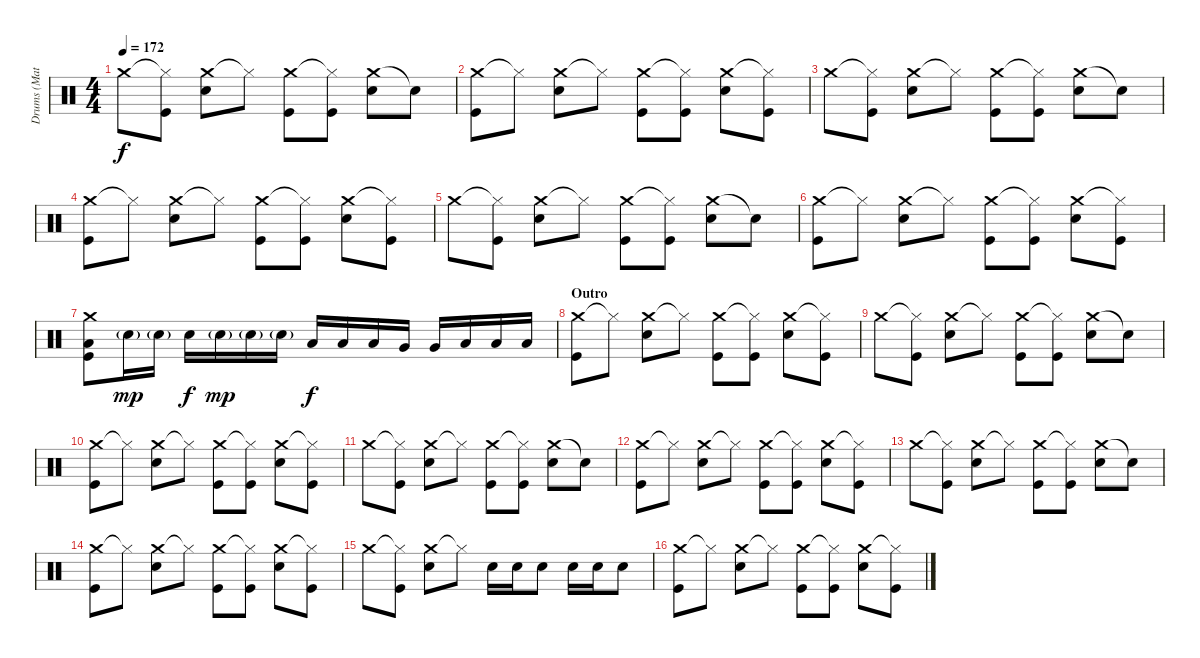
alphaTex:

\track ("Drums (Matt)" "Drums (Mat") {instrument percussion}
\staff {score}
\articulation defaults
\ts (4 4)
\tempo 172
\clef neutral
\ks c "Crash medium (hit)".8{dy f}
("Hi-Hat (closed)"{t} "Kick (hit)").8 ("Crash medium (hit)" "Electric Snare (hit)").8 "Hi-Hat (closed)"{t}.8 ("Crash medium (hit)" "Kick (hit)").8 ("Hi-Hat (closed)"{t} "Kick (hit)").8 ("Crash medium (hit)" "Electric Snare (hit)").8 "Snare (hit)"{t}.8 |
("Crash medium (hit)" "Kick (hit)").8 "Hi-Hat (closed)"{t}.8 ("Crash medium (hit)" "Electric Snare (hit)").8 "Hi-Hat (closed)"{t}.8 ("Crash medium (hit)" "Kick (hit)").8 ("Hi-Hat (closed)"{t} "Kick (hit)").8 ("Crash medium (hit)" "Electric Snare (hit)").8 ("Hi-Hat (closed)"{t} "Kick (hit)").8 |
"Crash medium (hit)".8 ("Hi-Hat (closed)"{t} "Kick (hit)").8 ("Crash medium (hit)" "Electric Snare (hit)").8 "Hi-Hat (closed)"{t}.8 ("Crash medium (hit)" "Kick (hit)").8 ("Hi-Hat (closed)"{t} "Kick (hit)").8 ("Crash medium (hit)" "Electric Snare (hit)").8 "Snare (hit)"{t}.8 |
("Crash medium (hit)" "Kick (hit)").8 "Hi-Hat (closed)"{t}.8 ("Crash medium (hit)" "Electric Snare (hit)").8 "Hi-Hat (closed)"{t}.8 ("Crash medium (hit)" "Kick (hit)").8 ("Hi-Hat (closed)"{t} "Kick (hit)").8 ("Crash medium (hit)" "Electric Snare (hit)").8 ("Hi-Hat (closed)"{t} "Kick (hit)").8 |
"Crash medium (hit)".8 ("Hi-Hat (closed)"{t} "Kick (hit)").8 ("Crash medium (hit)" "Electric Snare (hit)").8 "Hi-Hat (closed)"{t}.8 ("Crash medium (hit)" "Kick (hit)").8 ("Hi-Hat (closed)"{t} "Kick (hit)").8 ("Crash medium (hit)" "Electric Snare (hit)").8 "Snare (hit)"{t}.8 |
("Crash medium (hit)" "Kick (hit)").8 "Hi-Hat (closed)"{t}.8 ("Crash medium (hit)" "Electric Snare (hit)").8 "Hi-Hat (closed)"{t}.8 ("Crash medium (hit)" "Kick (hit)").8 ("Hi-Hat (closed)"{t} "Kick (hit)").8 ("Crash medium (hit)" "Electric Snare (hit)").8 ("Hi-Hat (closed)"{t} "Kick (hit)").8 |
("Crash medium (hit)" "Low Tom (hit)" "Kick (hit)").8 "Electric Snare (hit)"{g}.16{dy mp} "Electric Snare (hit)"{g}.16 "Electric Snare (hit)".16{dy f} "Electric Snare (hit)"{g}.16{dy mp} "Electric Snare (hit)"{g}.16 "Electric Snare (hit)"{g}.16 "Low Tom (hit)".16{dy f} "Low Tom (hit)".16 "Low Tom (hit)".16 "Very Low Tom (hit)".16 "Very Low Tom (hit)".16 "Low Floor Tom (hit)".16 "Low Floor Tom (hit)".16 "Low Floor Tom (hit)".16 |
\section ("" "Outro")
("Crash medium (hit)" "Kick (hit)").8 "Hi-Hat (closed)"{t}.8 ("Crash medium (hit)" "Electric Snare (hit)").8 "Hi-Hat (closed)"{t}.8 ("Crash medium (hit)" "Kick (hit)").8 ("Hi-Hat (closed)"{t} "Kick (hit)").8 ("Crash medium (hit)" "Electric Snare (hit)").8 ("Hi-Hat (closed)"{t} "Kick (hit)").8 |
"Crash medium (hit)".8 ("Hi-Hat (closed)"{t} "Kick (hit)").8 ("Crash medium (hit)" "Electric Snare (hit)").8 "Hi-Hat (closed)"{t}.8 ("Crash medium (hit)" "Kick (hit)").8 ("Hi-Hat (closed)"{t} "Kick (hit)").8 ("Crash medium (hit)" "Electric Snare (hit)").8 "Snare (hit)"{t}.8 |
("Crash medium (hit)" "Kick (hit)").8 "Hi-Hat (closed)"{t}.8 ("Crash medium (hit)" "Electric Snare (hit)").8 "Hi-Hat (closed)"{t}.8 ("Crash medium (hit)" "Kick (hit)").8 ("Hi-Hat (closed)"{t} "Kick (hit)").8 ("Crash medium (hit)" "Electric Snare (hit)").8 ("Hi-Hat (closed)"{t} "Kick (hit)").8 |
"Crash medium (hit)".8 ("Hi-Hat (closed)"{t} "Kick (hit)").8 ("Crash medium (hit)" "Electric Snare (hit)").8 "Hi-Hat (closed)"{t}.8 ("Crash medium (hit)" "Kick (hit)").8 ("Hi-Hat (closed)"{t} "Kick (hit)").8 ("Crash medium (hit)" "Electric Snare (hit)").8 "Snare (hit)"{t}.8 |
("Crash medium (hit)" "Kick (hit)").8 "Hi-Hat (closed)"{t}.8 ("Crash medium (hit)" "Electric Snare (hit)").8 "Hi-Hat (closed)"{t}.8 ("Crash medium (hit)" "Kick (hit)").8 ("Hi-Hat (closed)"{t} "Kick (hit)").8 ("Crash medium (hit)" "Electric Snare (hit)").8 ("Hi-Hat (closed)"{t} "Kick (hit)").8 |
"Crash medium (hit)".8 ("Hi-Hat (closed)"{t} "Kick (hit)").8 ("Crash medium (hit)" "Electric Snare (hit)").8 "Hi-Hat (closed)"{t}.8 ("Crash medium (hit)" "Kick (hit)").8 ("Hi-Hat (closed)"{t} "Kick (hit)").8 ("Crash medium (hit)" "Electric Snare (hit)").8 "Snare (hit)"{t}.8 |
("Crash medium (hit)" "Kick (hit)").8 "Hi-Hat (closed)"{t}.8 ("Crash medium (hit)" "Electric Snare (hit)").8 "Hi-Hat (closed)"{t}.8 ("Crash medium (hit)" "Kick (hit)").8 ("Hi-Hat (closed)"{t} "Kick (hit)").8 ("Crash medium (hit)" "Electric Snare (hit)").8 ("Hi-Hat (closed)"{t} "Kick (hit)").8 |
"Crash medium (hit)".8 ("Hi-Hat (closed)"{t} "Kick (hit)").8 ("Crash medium (hit)" "Electric Snare (hit)").8 "Hi-Hat (closed)"{t}.8 "Electric Snare (hit)".16 "Electric Snare (hit)".16 "Electric Snare (hit)".8 "Electric Snare (hit)".16 "Electric Snare (hit)".16 "Electric Snare (hit)".8 |
("Crash medium (hit)" "Kick (hit)").8 "Hi-Hat (closed)"{t}.8 ("Crash medium (hit)" "Electric Snare (hit)").8 "Hi-Hat (closed)"{t}.8 ("Crash medium (hit)" "Kick (hit)").8 ("Hi-Hat (closed)"{t} "Kick (hit)").8 ("Crash medium (hit)" "Electric Snare (hit)").8 ("Hi-Hat (closed)"{t} "Kick (hit)").8
